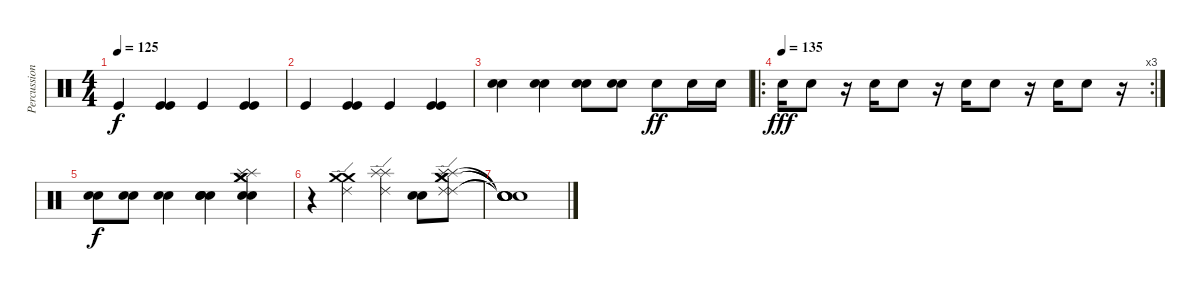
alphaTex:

\track ("Percussions" "Percussion") {instrument percussion}
\staff {score}
\articulation defaults
\ts (4 4)
\tempo 125
\clef neutral
\ks c "Kick (hit)".4{dy f}
("Kick (hit)" "Kick (hit)").4 "Kick (hit)".4 ("Kick (hit)" "Kick (hit)").4 |
"Kick (hit)".4 ("Kick (hit)" "Kick (hit)").4 "Kick (hit)".4 ("Kick (hit)" "Kick (hit)").4 |
("Snare (hit) 2" "Electric Snare (hit)").4 ("Snare (hit) 2" "Electric Snare (hit)").4 ("Snare (hit) 2" "Electric Snare (hit)").8 ("Snare (hit) 2" "Electric Snare (hit)").8 "Electric Snare (hit)".8{dy ff} "Electric Snare (hit)".16 "Electric Snare (hit)".16 |
\ro
\rc 3
\tempo (135)
"Electric Snare (hit)".16{dy fff} "Electric Snare (hit)".8 r.16 "Electric Snare (hit)".16 "Electric Snare (hit)".8 r.16 "Electric Snare (hit)".16 "Electric Snare (hit)".8 r.16 "Electric Snare (hit)".16 "Electric Snare (hit)".8 r.16 |
("Electric Snare (hit)" "Electric Snare (hit)").8{dy f} ("Electric Snare (hit)" "Electric Snare (hit)").8 ("Electric Snare (hit)" "Electric Snare (hit)").4 ("Snare (hit) 2" "Snare (hit) 2" "Snare (hit) 2" "Snare (hit) 2").4 ("Crash medium (hit)" "Crash medium (hit)" "Electric Snare (hit)" "Splash (hit)" "Splash (hit)" "Electric Snare (hit)").4 |
r.4 ("Ride (edge) 2" "Crash medium (hit)" "Crash medium (hit)").4 ("Ride (edge) 2" "Splash (hit)" "Splash (hit)").4 ("Electric Snare (hit)" "Electric Snare (hit)").8 ("Crash medium (hit)" "Crash medium (hit)" "Ride (edge) 2" "Ride (edge) 2" "Splash (hit)" "Splash (hit)").8 |
("Snare (hit)"{t} "Snare (hit)"{t} "Snare (hit)"{t} "Snare (hit)"{t} "Snare (hit)"{t}).1
